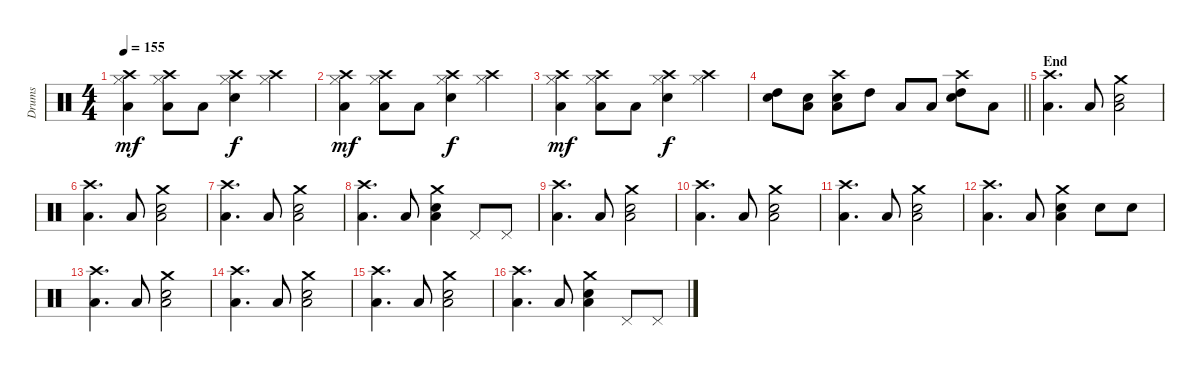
\track ("Drums" "Drums") {instrument percussion}
\staff {score}
\articulation defaults
\ts (4 4)
\tempo 155
\clef neutral
\ks c
("Crash high (hit)" "Low Floor Tom (hit)" "Hi-Hat (closed)").4{dy mf} ("Crash high (hit)" "Low Floor Tom (hit)" "Hi-Hat (closed)").8 "Low Floor Tom (hit)".8 ("Crash high (hit)" "Electric Snare (hit)" "Hi-Hat (closed)").4{dy f} ("Crash high (hit)" "Hi-Hat (closed)").4 |
("Crash high (hit)" "Low Floor Tom (hit)" "Hi-Hat (closed)").4{dy mf} ("Crash high (hit)" "Low Floor Tom (hit)" "Hi-Hat (closed)").8 "Low Floor Tom (hit)".8 ("Crash high (hit)" "Electric Snare (hit)" "Hi-Hat (closed)").4{dy f} ("Crash high (hit)" "Hi-Hat (closed)").4 |
("Crash high (hit)" "Low Floor Tom (hit)" "Hi-Hat (closed)").4{dy mf} ("Crash high (hit)" "Low Floor Tom (hit)" "Hi-Hat (closed)").8 "Low Floor Tom (hit)".8 ("Crash high (hit)" "Electric Snare (hit)" "Hi-Hat (closed)").4{dy f} ("Crash high (hit)" "Hi-Hat (closed)").4 |
\barLineRight lightlight
("High Tom (hit)" "Electric Snare (hit)").8 ("Low Tom (hit)" "Electric Snare (hit)").8 ("Low Tom (hit)" "Electric Snare (hit)" "Crash high (hit)").8 "High Tom (hit)".8 "Low Tom (hit)".8 "Low Tom (hit)".8 ("High Tom (hit)" "Electric Snare (hit)" "Crash high (hit)").8 "Low Tom (hit)".8 |
\section ("" "End")
("Crash high (hit)" "Low Floor Tom (hit)").4{d} "Low Floor Tom (hit)".8 ("Crash medium (hit)" "Electric Snare (hit)" "Low Floor Tom (hit)").2 |
("Crash high (hit)" "Low Floor Tom (hit)").4{d} "Low Floor Tom (hit)".8 ("Crash medium (hit)" "Electric Snare (hit)" "Low Floor Tom (hit)").2 |
("Crash high (hit)" "Low Floor Tom (hit)").4{d} "Low Floor Tom (hit)".8 ("Crash medium (hit)" "Electric Snare (hit)" "Low Floor Tom (hit)").2 |
("Crash high (hit)" "Low Floor Tom (hit)").4{d} "Low Floor Tom (hit)".8 ("Crash medium (hit)" "Electric Snare (hit)" "Low Floor Tom (hit)").4 "Pedal Hi-Hat (hit)".8 "Pedal Hi-Hat (hit)".8 |
("Crash high (hit)" "Low Floor Tom (hit)").4{d} "Low Floor Tom (hit)".8 ("Crash medium (hit)" "Electric Snare (hit)" "Low Floor Tom (hit)").2 |
("Crash high (hit)" "Low Floor Tom (hit)").4{d} "Low Floor Tom (hit)".8 ("Crash medium (hit)" "Electric Snare (hit)" "Low Floor Tom (hit)").2 |
("Crash high (hit)" "Low Floor Tom (hit)").4{d} "Low Floor Tom (hit)".8 ("Crash medium (hit)" "Electric Snare (hit)" "Low Floor Tom (hit)").2 |
("Crash high (hit)" "Low Floor Tom (hit)").4{d} "Low Floor Tom (hit)".8 ("Crash medium (hit)" "Electric Snare (hit)" "Low Floor Tom (hit)").4 "Electric Snare (hit)".8 "Electric Snare (hit)".8 |
("Crash high (hit)" "Low Floor Tom (hit)").4{d} "Low Floor Tom (hit)".8 ("Crash medium (hit)" "Electric Snare (hit)" "Low Floor Tom (hit)").2 |
("Crash high (hit)" "Low Floor Tom (hit)").4{d} "Low Floor Tom (hit)".8 ("Crash medium (hit)" "Electric Snare (hit)" "Low Floor Tom (hit)").2 |
("Crash high (hit)" "Low Floor Tom (hit)").4{d} "Low Floor Tom (hit)".8 ("Crash medium (hit)" "Electric Snare (hit)" "Low Floor Tom (hit)").2 |
("Crash high (hit)" "Low Floor Tom (hit)").4{d} "Low Floor Tom (hit)".8 ("Crash medium (hit)" "Electric Snare (hit)" "Low Floor Tom (hit)").4 "Pedal Hi-Hat (hit)".8 "Pedal Hi-Hat (hit)".8
